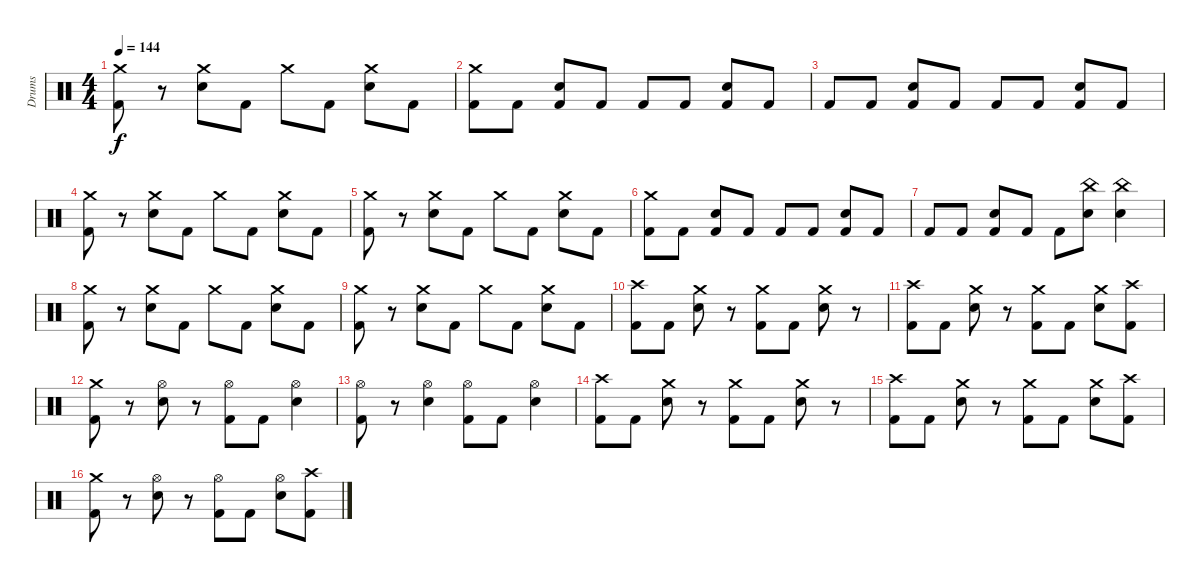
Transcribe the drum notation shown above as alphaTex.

\track ("Drums" "Drums") {instrument percussion}
\staff
\articulation defaults
\ts (4 4)
\tempo 144
\clef neutral
\ks c
("Crash medium (hit)" "Kick (hit) 2").8{dy f} r.8 ("Crash medium (hit)" "Electric Snare (hit)").8 "Kick (hit) 2".8 "Crash medium (hit)".8 "Kick (hit) 2".8 ("Crash medium (hit)" "Electric Snare (hit)").8 "Kick (hit) 2".8 |
("Crash medium (hit)" "Kick (hit) 2").8 "Kick (hit) 2".8 ("Electric Snare (hit)" "Kick (hit) 2").8 "Kick (hit) 2".8 "Kick (hit) 2".8 "Kick (hit) 2".8 ("Electric Snare (hit)" "Kick (hit) 2").8 "Kick (hit) 2".8 |
"Kick (hit) 2".8 "Kick (hit) 2".8 ("Electric Snare (hit)" "Kick (hit) 2").8 "Kick (hit) 2".8 "Kick (hit) 2".8 "Kick (hit) 2".8 ("Electric Snare (hit)" "Kick (hit) 2").8 "Kick (hit) 2".8 |
("Crash medium (hit)" "Kick (hit) 2").8 r.8 ("Crash medium (hit)" "Electric Snare (hit)").8 "Kick (hit) 2".8 "Crash medium (hit)".8 "Kick (hit) 2".8 ("Crash medium (hit)" "Electric Snare (hit)").8 "Kick (hit) 2".8 |
("Crash medium (hit)" "Kick (hit) 2").8 r.8 ("Crash medium (hit)" "Electric Snare (hit)").8 "Kick (hit) 2".8 "Crash medium (hit)".8 "Kick (hit) 2".8 ("Crash medium (hit)" "Electric Snare (hit)").8 "Kick (hit) 2".8 |
("Crash medium (hit)" "Kick (hit) 2").8 "Kick (hit) 2".8 ("Electric Snare (hit)" "Kick (hit) 2").8 "Kick (hit) 2".8 "Kick (hit) 2".8 "Kick (hit) 2".8 ("Electric Snare (hit)" "Kick (hit) 2").8 "Kick (hit) 2".8 |
"Kick (hit) 2".8 "Kick (hit) 2".8 ("Electric Snare (hit)" "Kick (hit) 2").8 "Kick (hit) 2".8 "Kick (hit) 2".8 ("China (hit)" "Electric Snare (hit)").8 ("China (hit)" "Electric Snare (hit)").4 |
("Crash medium (hit)" "Kick (hit) 2").8 r.8 ("Crash medium (hit)" "Electric Snare (hit)").8 "Kick (hit) 2".8 "Crash medium (hit)".8 "Kick (hit) 2".8 ("Crash medium (hit)" "Electric Snare (hit)").8 "Kick (hit) 2".8 |
("Crash medium (hit)" "Kick (hit) 2").8 r.8 ("Crash medium (hit)" "Electric Snare (hit)").8 "Kick (hit) 2".8 "Crash medium (hit)".8 "Kick (hit) 2".8 ("Crash medium (hit)" "Electric Snare (hit)").8 "Kick (hit) 2".8 |
("Crash high (hit)" "Kick (hit) 2").8 "Kick (hit) 2".8 ("Crash medium (hit)" "Electric Snare (hit)").8 r.8 ("Crash medium (hit)" "Kick (hit) 2").8 "Kick (hit) 2".8 ("Crash medium (hit)" "Electric Snare (hit)").8 r.8 |
("Crash high (hit)" "Kick (hit) 2").8 "Kick (hit) 2".8 ("Crash medium (hit)" "Electric Snare (hit)").8 r.8 ("Crash medium (hit)" "Kick (hit) 2").8 "Kick (hit) 2".8 ("Crash medium (hit)" "Electric Snare (hit)").8 ("Crash high (hit)" "Kick (hit) 2").8 |
("Crash medium (hit)" "Kick (hit) 2").8 r.8 ("Hi-Hat (open)" "Electric Snare (hit)").8 r.8 ("Hi-Hat (open)" "Kick (hit) 2").8 "Kick (hit) 2".8 ("Hi-Hat (open)" "Electric Snare (hit)").4 |
("Hi-Hat (open)" "Kick (hit) 2").8 r.8 ("Hi-Hat (open)" "Electric Snare (hit)").4 ("Hi-Hat (open)" "Kick (hit) 2").8 "Kick (hit) 2".8 ("Hi-Hat (open)" "Electric Snare (hit)").4 |
("Crash high (hit)" "Kick (hit) 2").8 "Kick (hit) 2".8 ("Crash medium (hit)" "Electric Snare (hit)").8 r.8 ("Crash medium (hit)" "Kick (hit) 2").8 "Kick (hit) 2".8 ("Crash medium (hit)" "Electric Snare (hit)").8 r.8 |
("Crash high (hit)" "Kick (hit) 2").8 "Kick (hit) 2".8 ("Crash medium (hit)" "Electric Snare (hit)").8 r.8 ("Crash medium (hit)" "Kick (hit) 2").8 "Kick (hit) 2".8 ("Crash medium (hit)" "Electric Snare (hit)").8 ("Crash high (hit)" "Kick (hit) 2").8 |
("Crash medium (hit)" "Kick (hit) 2").8 r.8 ("Hi-Hat (open)" "Electric Snare (hit)").8 r.8 ("Hi-Hat (open)" "Kick (hit) 2").8 "Kick (hit) 2".8 ("Hi-Hat (open)" "Electric Snare (hit)").8 ("Crash high (hit)" "Kick (hit) 2").8
